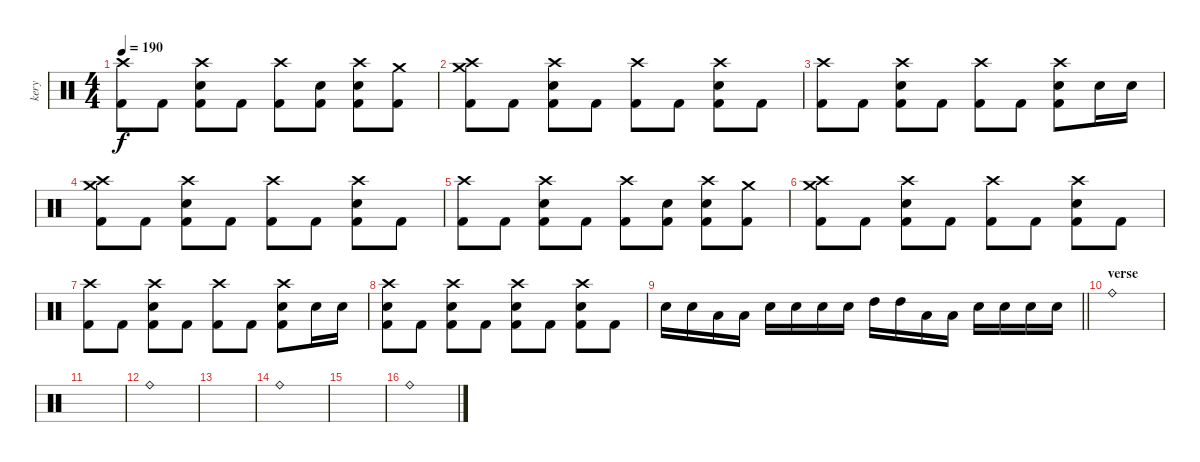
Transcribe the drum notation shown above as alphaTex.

\track ("kery" "kery") {instrument percussion}
\staff {score}
\articulation defaults
\ts (4 4)
\tempo 190
\clef neutral
\ks c
("Crash high (hit)" "Kick (hit) 2").8{dy f} "Kick (hit) 2".8 ("Crash high (hit)" "Electric Snare (hit)" "Kick (hit) 2").8 "Kick (hit) 2".8 ("Crash high (hit)" "Kick (hit) 2").8 ("Electric Snare (hit)" "Kick (hit) 2").8 ("Crash high (hit)" "Electric Snare (hit)" "Kick (hit) 2").8 ("Crash medium (hit)" "Kick (hit) 2").8 |
("Crash high (hit)" "Crash medium (hit)" "Kick (hit) 2").8 "Kick (hit) 2".8 ("Crash high (hit)" "Electric Snare (hit)" "Kick (hit) 2").8 "Kick (hit) 2".8 ("Crash high (hit)" "Kick (hit) 2").8 "Kick (hit) 2".8 ("Crash high (hit)" "Electric Snare (hit)" "Kick (hit) 2").8 "Kick (hit) 2".8 |
("Crash high (hit)" "Kick (hit) 2").8 "Kick (hit) 2".8 ("Crash high (hit)" "Electric Snare (hit)" "Kick (hit) 2").8 "Kick (hit) 2".8 ("Crash high (hit)" "Kick (hit) 2").8 "Kick (hit) 2".8 ("Crash high (hit)" "Electric Snare (hit)" "Kick (hit) 2").8 "Electric Snare (hit)".16 "Electric Snare (hit)".16 |
("Crash high (hit)" "Crash medium (hit)" "Kick (hit) 2").8 "Kick (hit) 2".8 ("Crash high (hit)" "Electric Snare (hit)" "Kick (hit) 2").8 "Kick (hit) 2".8 ("Crash high (hit)" "Kick (hit) 2").8 "Kick (hit) 2".8 ("Crash high (hit)" "Electric Snare (hit)" "Kick (hit) 2").8 "Kick (hit) 2".8 |
("Crash high (hit)" "Kick (hit) 2").8 "Kick (hit) 2".8 ("Crash high (hit)" "Electric Snare (hit)" "Kick (hit) 2").8 "Kick (hit) 2".8 ("Crash high (hit)" "Kick (hit) 2").8 ("Electric Snare (hit)" "Kick (hit) 2").8 ("Crash high (hit)" "Electric Snare (hit)" "Kick (hit) 2").8 ("Crash medium (hit)" "Kick (hit) 2").8 |
("Crash high (hit)" "Crash medium (hit)" "Kick (hit) 2").8 "Kick (hit) 2".8 ("Crash high (hit)" "Electric Snare (hit)" "Kick (hit) 2").8 "Kick (hit) 2".8 ("Crash high (hit)" "Kick (hit) 2").8 "Kick (hit) 2".8 ("Crash high (hit)" "Electric Snare (hit)" "Kick (hit) 2").8 "Kick (hit) 2".8 |
("Crash high (hit)" "Kick (hit) 2").8 "Kick (hit) 2".8 ("Crash high (hit)" "Electric Snare (hit)" "Kick (hit) 2").8 "Kick (hit) 2".8 ("Crash high (hit)" "Kick (hit) 2").8 "Kick (hit) 2".8 ("Crash high (hit)" "Electric Snare (hit)" "Kick (hit) 2").8 "Electric Snare (hit)".16 "Electric Snare (hit)".16 |
("Crash high (hit)" "Electric Snare (hit)" "Kick (hit) 2").8 "Kick (hit) 2".8 ("Crash high (hit)" "Electric Snare (hit)" "Kick (hit) 2").8 "Kick (hit) 2".8 ("Crash high (hit)" "Electric Snare (hit)" "Kick (hit) 2").8 "Kick (hit) 2".8 ("Crash high (hit)" "Electric Snare (hit)" "Kick (hit) 2").8 "Kick (hit) 2".8 |
\barLineRight lightlight "Electric Snare (hit)".16 "Electric Snare (hit)".16 "Low Tom (hit)".16 "Low Tom (hit)".16 "Electric Snare (hit)".16 "Electric Snare (hit)".16 "Electric Snare (hit)".16 "Electric Snare (hit)".16 "High Tom (hit)".16 "High Tom (hit)".16 "Low Tom (hit)".16 "Low Tom (hit)".16 "Electric Snare (hit)".16 "Electric Snare (hit)".16 "Electric Snare (hit)".16 "Electric Snare (hit)".16
|
\section ("" "verse")
"Ride (bell)".1 |
|
"Ride (bell)".1 |
|
"Ride (bell)".1 |
|
"Ride (bell)".1
